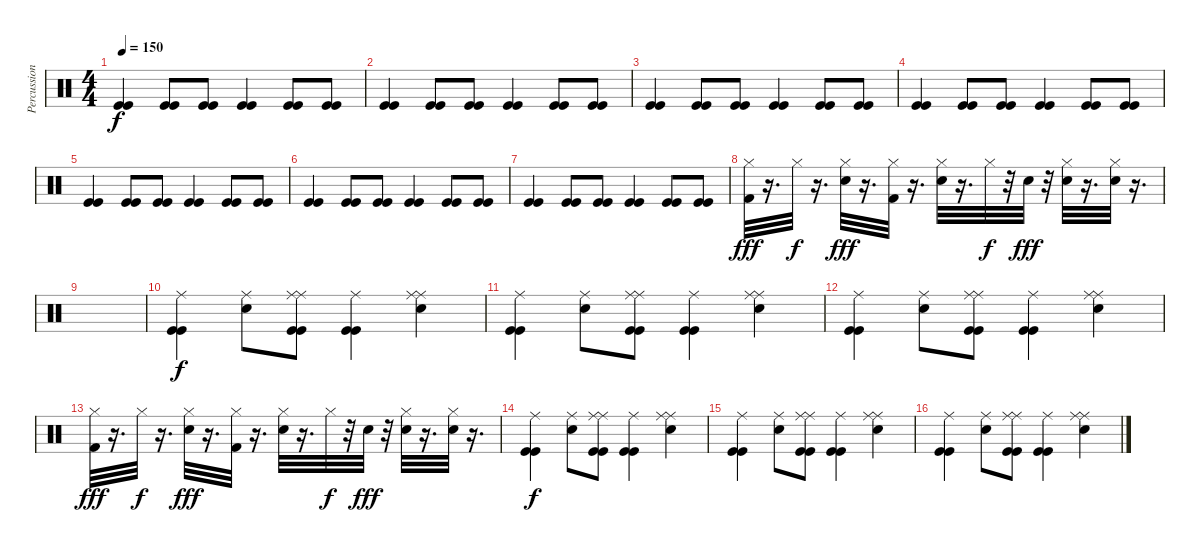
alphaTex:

\track ("Percussion" "Percussion") {instrument percussion}
\staff {score}
\articulation defaults
\ts (4 4)
\tempo 150
\clef neutral
\ks c
("Kick (hit)" "Kick (hit)").4{dy f} ("Kick (hit)" "Kick (hit)").8 ("Kick (hit)" "Kick (hit)").8 ("Kick (hit)" "Kick (hit)").4 ("Kick (hit)" "Kick (hit)").8 ("Kick (hit)" "Kick (hit)").8 |
("Kick (hit)" "Kick (hit)").4 ("Kick (hit)" "Kick (hit)").8 ("Kick (hit)" "Kick (hit)").8 ("Kick (hit)" "Kick (hit)").4 ("Kick (hit)" "Kick (hit)").8 ("Kick (hit)" "Kick (hit)").8 |
("Kick (hit)" "Kick (hit)").4 ("Kick (hit)" "Kick (hit)").8 ("Kick (hit)" "Kick (hit)").8 ("Kick (hit)" "Kick (hit)").4 ("Kick (hit)" "Kick (hit)").8 ("Kick (hit)" "Kick (hit)").8 |
("Kick (hit)" "Kick (hit)").4 ("Kick (hit)" "Kick (hit)").8 ("Kick (hit)" "Kick (hit)").8 ("Kick (hit)" "Kick (hit)").4 ("Kick (hit)" "Kick (hit)").8 ("Kick (hit)" "Kick (hit)").8 |
("Kick (hit)" "Kick (hit)").4 ("Kick (hit)" "Kick (hit)").8 ("Kick (hit)" "Kick (hit)").8 ("Kick (hit)" "Kick (hit)").4 ("Kick (hit)" "Kick (hit)").8 ("Kick (hit)" "Kick (hit)").8 |
("Kick (hit)" "Kick (hit)").4 ("Kick (hit)" "Kick (hit)").8 ("Kick (hit)" "Kick (hit)").8 ("Kick (hit)" "Kick (hit)").4 ("Kick (hit)" "Kick (hit)").8 ("Kick (hit)" "Kick (hit)").8 |
("Kick (hit)" "Kick (hit)").4 ("Kick (hit)" "Kick (hit)").8 ("Kick (hit)" "Kick (hit)").8 ("Kick (hit)" "Kick (hit)").4 ("Kick (hit)" "Kick (hit)").8 ("Kick (hit)" "Kick (hit)").8 |
("Kick (hit) 2" "Hi-Hat (closed)").32{dy fff} r.16{d} "Hi-Hat (closed)".32{dy f} r.16{d} ("Hi-Hat (closed)" "Electric Snare (hit)").32{dy fff} r.16{d} ("Kick (hit) 2" "Hi-Hat (closed)").32 r.16{d} ("Electric Snare (hit)" "Hi-Hat (closed)").32 r.16{d} "Hi-Hat (closed)".32{dy f} r.32 "Electric Snare (hit)".32{dy fff} r.32 ("Hi-Hat (closed)" "Electric Snare (hit)").32 r.16{d} ("Hi-Hat (closed)" "Electric Snare (hit)").32 r.16{d} |
|
("Kick (hit)" "Kick (hit)" "Ride (middle)").4{dy f} ("Electric Snare (hit)" "Ride (middle)").8 ("Kick (hit)" "Kick (hit)" "Ride (middle)" "Ride (middle)").8 ("Kick (hit)" "Kick (hit)" "Ride (middle)").4 ("Electric Snare (hit)" "Ride (middle)" "Ride (middle)").4 |
("Kick (hit)" "Kick (hit)" "Ride (middle)").4 ("Electric Snare (hit)" "Ride (middle)").8 ("Kick (hit)" "Kick (hit)" "Ride (middle)" "Ride (middle)").8 ("Kick (hit)" "Kick (hit)" "Ride (middle)").4 ("Electric Snare (hit)" "Ride (middle)" "Ride (middle)").4 |
("Kick (hit)" "Kick (hit)" "Ride (middle)").4 ("Electric Snare (hit)" "Ride (middle)").8 ("Kick (hit)" "Kick (hit)" "Ride (middle)" "Ride (middle)").8 ("Kick (hit)" "Kick (hit)" "Ride (middle)").4 ("Electric Snare (hit)" "Ride (middle)" "Ride (middle)").4 |
("Kick (hit) 2" "Hi-Hat (closed)").32{dy fff} r.16{d} "Hi-Hat (closed)".32{dy f} r.16{d} ("Hi-Hat (closed)" "Electric Snare (hit)").32{dy fff} r.16{d} ("Kick (hit) 2" "Hi-Hat (closed)").32 r.16{d} ("Electric Snare (hit)" "Hi-Hat (closed)").32 r.16{d} "Hi-Hat (closed)".32{dy f} r.32 "Electric Snare (hit)".32{dy fff} r.32 ("Hi-Hat (closed)" "Electric Snare (hit)").32 r.16{d} ("Hi-Hat (closed)" "Electric Snare (hit)").32 r.16{d} |
("Kick (hit)" "Kick (hit)" "Ride (middle)").4{dy f} ("Electric Snare (hit)" "Ride (middle)").8 ("Kick (hit)" "Kick (hit)" "Ride (middle)" "Ride (middle)").8 ("Kick (hit)" "Kick (hit)" "Ride (middle)").4 ("Electric Snare (hit)" "Ride (middle)" "Ride (middle)").4 |
("Kick (hit)" "Kick (hit)" "Ride (middle)").4 ("Electric Snare (hit)" "Ride (middle)").8 ("Kick (hit)" "Kick (hit)" "Ride (middle)" "Ride (middle)").8 ("Kick (hit)" "Kick (hit)" "Ride (middle)").4 ("Electric Snare (hit)" "Ride (middle)" "Ride (middle)").4 |
("Kick (hit)" "Kick (hit)" "Ride (middle)").4 ("Electric Snare (hit)" "Ride (middle)").8 ("Kick (hit)" "Kick (hit)" "Ride (middle)" "Ride (middle)").8 ("Kick (hit)" "Kick (hit)" "Ride (middle)").4 ("Electric Snare (hit)" "Ride (middle)" "Ride (middle)").4
